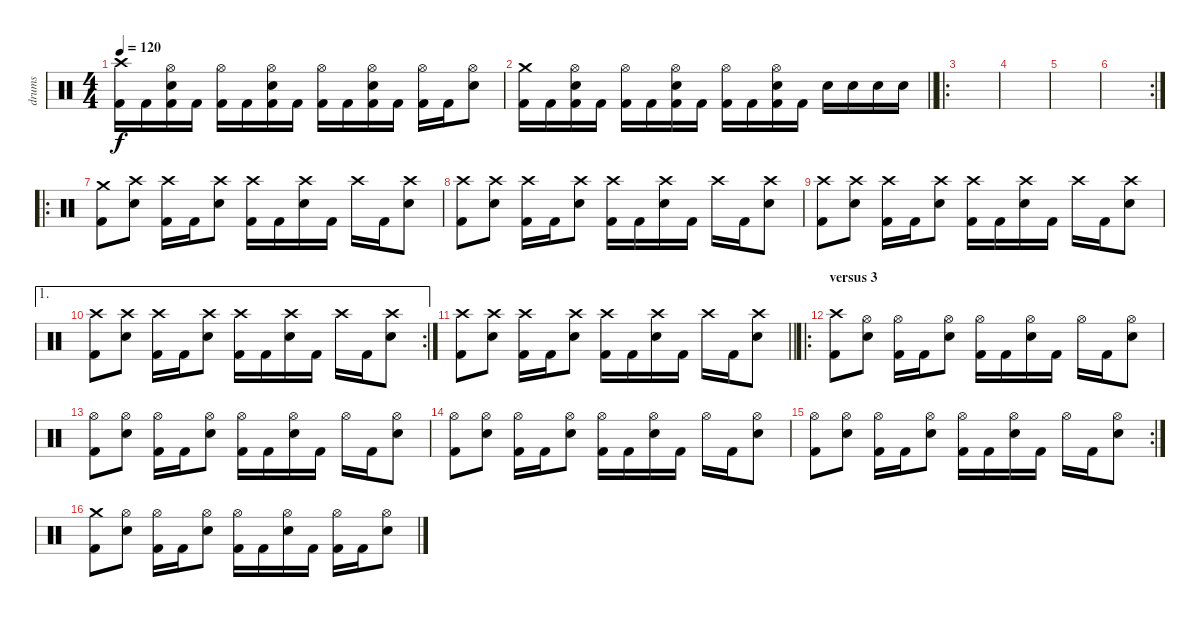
\track ("drums" "drums") {instrument percussion}
\staff {score}
\articulation defaults
\ts (4 4)
\tempo 120
\clef neutral
\ks c
("Crash high (hit)" "Kick (hit) 2").16{dy f} "Kick (hit) 2".16 ("Hi-Hat (open)" "Snare (hit) 2" "Kick (hit) 2").16 "Kick (hit) 2".16 ("Hi-Hat (open)" "Kick (hit) 2").16 "Kick (hit) 2".16 ("Hi-Hat (open)" "Snare (hit) 2" "Kick (hit) 2").16 "Kick (hit) 2".16 ("Hi-Hat (open)" "Kick (hit) 2").16 "Kick (hit) 2".16 ("Hi-Hat (open)" "Snare (hit) 2" "Kick (hit) 2").16 "Kick (hit) 2".16 ("Hi-Hat (open)" "Kick (hit) 2").16 "Kick (hit) 2".16 ("Hi-Hat (open)" "Snare (hit) 2").8 |
\barLineRight lightlight
("Crash medium (hit)" "Kick (hit) 2").16 "Kick (hit) 2".16 ("Hi-Hat (open)" "Snare (hit) 2" "Kick (hit) 2").16 "Kick (hit) 2".16 ("Hi-Hat (open)" "Kick (hit) 2").16 "Kick (hit) 2".16 ("Hi-Hat (open)" "Snare (hit) 2" "Kick (hit) 2").16 "Kick (hit) 2".16 ("Hi-Hat (open)" "Kick (hit) 2").16 "Kick (hit) 2".16 ("Hi-Hat (open)" "Snare (hit) 2" "Kick (hit) 2").16 "Kick (hit) 2".16 "Snare (hit) 2".16 "Snare (hit) 2".16 "Snare (hit) 2".16 "Snare (hit) 2".16 |
\ro
|
|
|
\rc 2
|
\ro
("Crash medium (hit)" "Kick (hit) 2").8 ("Crash high (hit)" "Snare (hit) 2").8 ("Crash high (hit)" "Kick (hit) 2").16 "Kick (hit) 2".16 ("Crash high (hit)" "Snare (hit) 2").8 ("Crash high (hit)" "Kick (hit) 2").16 "Kick (hit) 2".16 ("Crash high (hit)" "Snare (hit) 2").16 "Kick (hit) 2".16 "Crash high (hit)".16 "Kick (hit) 2".16 ("Crash high (hit)" "Snare (hit) 2").8 |
("Crash high (hit)" "Kick (hit) 2").8 ("Crash high (hit)" "Snare (hit) 2").8 ("Crash high (hit)" "Kick (hit) 2").16 "Kick (hit) 2".16 ("Crash high (hit)" "Snare (hit) 2").8 ("Crash high (hit)" "Kick (hit) 2").16 "Kick (hit) 2".16 ("Crash high (hit)" "Snare (hit) 2").16 "Kick (hit) 2".16 "Crash high (hit)".16 "Kick (hit) 2".16 ("Crash high (hit)" "Snare (hit) 2").8 |
("Crash high (hit)" "Kick (hit) 2").8 ("Crash high (hit)" "Snare (hit) 2").8 ("Crash high (hit)" "Kick (hit) 2").16 "Kick (hit) 2".16 ("Crash high (hit)" "Snare (hit) 2").8 ("Crash high (hit)" "Kick (hit) 2").16 "Kick (hit) 2".16 ("Crash high (hit)" "Snare (hit) 2").16 "Kick (hit) 2".16 "Crash high (hit)".16 "Kick (hit) 2".16 ("Crash high (hit)" "Snare (hit) 2").8 |
\ae 1
\rc 2
("Crash high (hit)" "Kick (hit) 2").8 ("Crash high (hit)" "Snare (hit) 2").8 ("Crash high (hit)" "Kick (hit) 2").16 "Kick (hit) 2".16 ("Crash high (hit)" "Snare (hit) 2").8 ("Crash high (hit)" "Kick (hit) 2").16 "Kick (hit) 2".16 ("Crash high (hit)" "Snare (hit) 2").16 "Kick (hit) 2".16 "Crash high (hit)".16 "Kick (hit) 2".16 ("Crash high (hit)" "Snare (hit) 2").8 |
\barLineRight lightlight
("Crash high (hit)" "Kick (hit) 2").8 ("Crash high (hit)" "Snare (hit) 2").8 ("Crash high (hit)" "Kick (hit) 2").16 "Kick (hit) 2".16 ("Crash high (hit)" "Snare (hit) 2").8 ("Crash high (hit)" "Kick (hit) 2").16 "Kick (hit) 2".16 ("Crash high (hit)" "Snare (hit) 2").16 "Kick (hit) 2".16 "Crash high (hit)".16 "Kick (hit) 2".16 ("Crash high (hit)" "Snare (hit) 2").8 |
\ro
\section ("" "versus 3")
("Crash high (hit)" "Kick (hit) 2").8 ("Hi-Hat (open)" "Snare (hit) 2").8 ("Hi-Hat (open)" "Kick (hit) 2").16 "Kick (hit) 2".16 ("Hi-Hat (open)" "Snare (hit) 2").8 ("Hi-Hat (open)" "Kick (hit) 2").16 "Kick (hit) 2".16 ("Hi-Hat (open)" "Snare (hit) 2").16 "Kick (hit) 2".16 "Hi-Hat (open)".16 "Kick (hit) 2".16 ("Hi-Hat (open)" "Snare (hit) 2").8 |
("Hi-Hat (open)" "Kick (hit) 2").8 ("Hi-Hat (open)" "Snare (hit) 2").8 ("Hi-Hat (open)" "Kick (hit) 2").16 "Kick (hit) 2".16 ("Hi-Hat (open)" "Snare (hit) 2").8 ("Hi-Hat (open)" "Kick (hit) 2").16 "Kick (hit) 2".16 ("Hi-Hat (open)" "Snare (hit) 2").16 "Kick (hit) 2".16 "Hi-Hat (open)".16 "Kick (hit) 2".16 ("Hi-Hat (open)" "Snare (hit) 2").8 |
("Hi-Hat (open)" "Kick (hit) 2").8 ("Hi-Hat (open)" "Snare (hit) 2").8 ("Hi-Hat (open)" "Kick (hit) 2").16 "Kick (hit) 2".16 ("Hi-Hat (open)" "Snare (hit) 2").8 ("Hi-Hat (open)" "Kick (hit) 2").16 "Kick (hit) 2".16 ("Hi-Hat (open)" "Snare (hit) 2").16 "Kick (hit) 2".16 "Hi-Hat (open)".16 "Kick (hit) 2".16 ("Hi-Hat (open)" "Snare (hit) 2").8 |
\rc 2
("Hi-Hat (open)" "Kick (hit) 2").8 ("Hi-Hat (open)" "Snare (hit) 2").8 ("Hi-Hat (open)" "Kick (hit) 2").16 "Kick (hit) 2".16 ("Hi-Hat (open)" "Snare (hit) 2").8 ("Hi-Hat (open)" "Kick (hit) 2").16 "Kick (hit) 2".16 ("Hi-Hat (open)" "Snare (hit) 2").16 "Kick (hit) 2".16 "Hi-Hat (open)".16 "Kick (hit) 2".16 ("Hi-Hat (open)" "Snare (hit) 2").8 |
("Crash medium (hit)" "Kick (hit) 2").8 ("Hi-Hat (open)" "Snare (hit) 2").8 ("Hi-Hat (open)" "Kick (hit) 2").16 "Kick (hit) 2".16 ("Hi-Hat (open)" "Snare (hit) 2").8 ("Hi-Hat (open)" "Kick (hit) 2").16 "Kick (hit) 2".16 ("Hi-Hat (open)" "Snare (hit) 2").16 "Kick (hit) 2".16 ("Hi-Hat (open)" "Kick (hit) 2").16 "Kick (hit) 2".16 ("Hi-Hat (open)" "Snare (hit) 2").8
